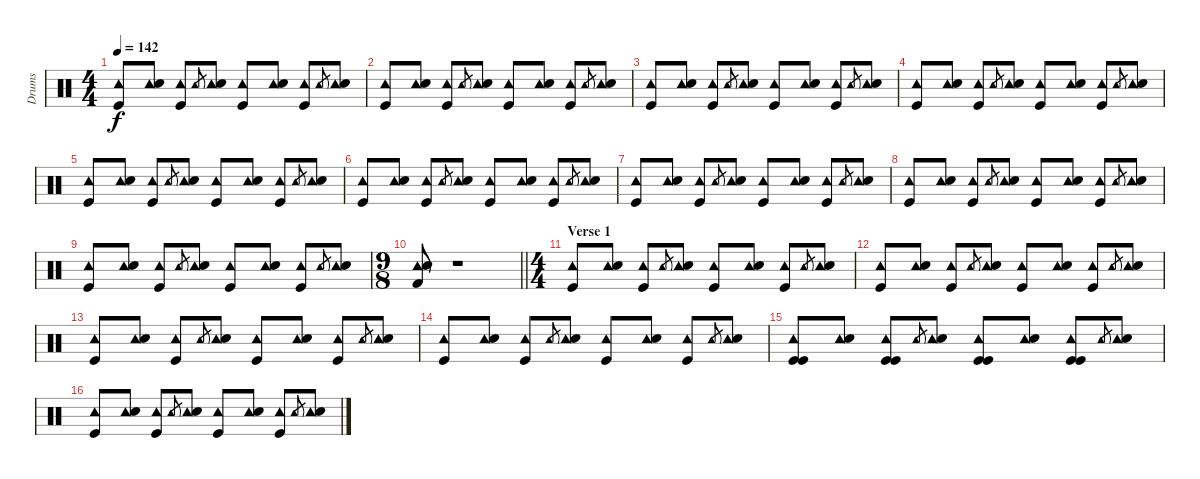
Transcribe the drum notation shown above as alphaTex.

\track ("Drums" "Drums") {instrument percussion}
\staff {score}
\articulation defaults
\ts (4 4)
\tempo 142
\clef neutral
\ks c
("Tambourine (hit)" "Kick (hit)").8{dy f} ("Tambourine (hit)" "Snare (hit) 2").8 ("Tambourine (hit)" "Kick (hit)").8 "Tambourine (hit)".8{gr} ("Tambourine (hit)" "Snare (hit) 2").8 ("Tambourine (hit)" "Kick (hit)").8 ("Tambourine (hit)" "Snare (hit) 2").8 ("Tambourine (hit)" "Kick (hit)").8 "Tambourine (hit)".8{gr} ("Tambourine (hit)" "Snare (hit) 2").8 |
("Tambourine (hit)" "Kick (hit)").8 ("Tambourine (hit)" "Snare (hit) 2").8 ("Tambourine (hit)" "Kick (hit)").8 "Tambourine (hit)".8{gr} ("Tambourine (hit)" "Snare (hit) 2").8 ("Tambourine (hit)" "Kick (hit)").8 ("Tambourine (hit)" "Snare (hit) 2").8 ("Tambourine (hit)" "Kick (hit)").8 "Tambourine (hit)".8{gr} ("Tambourine (hit)" "Snare (hit) 2").8 |
("Tambourine (hit)" "Kick (hit)").8 ("Tambourine (hit)" "Snare (hit) 2").8 ("Tambourine (hit)" "Kick (hit)").8 "Tambourine (hit)".8{gr} ("Tambourine (hit)" "Snare (hit) 2").8 ("Tambourine (hit)" "Kick (hit)").8 ("Tambourine (hit)" "Snare (hit) 2").8 ("Tambourine (hit)" "Kick (hit)").8 "Tambourine (hit)".8{gr} ("Tambourine (hit)" "Snare (hit) 2").8 |
("Tambourine (hit)" "Kick (hit)").8 ("Tambourine (hit)" "Snare (hit) 2").8 ("Tambourine (hit)" "Kick (hit)").8 "Tambourine (hit)".8{gr} ("Tambourine (hit)" "Snare (hit) 2").8 ("Tambourine (hit)" "Kick (hit)").8 ("Tambourine (hit)" "Snare (hit) 2").8 ("Tambourine (hit)" "Kick (hit)").8 "Tambourine (hit)".8{gr} ("Tambourine (hit)" "Snare (hit) 2").8 |
("Tambourine (hit)" "Kick (hit)").8 ("Tambourine (hit)" "Snare (hit) 2").8 ("Tambourine (hit)" "Kick (hit)").8 "Tambourine (hit)".8{gr} ("Tambourine (hit)" "Snare (hit) 2").8 ("Tambourine (hit)" "Kick (hit)").8 ("Tambourine (hit)" "Snare (hit) 2").8 ("Tambourine (hit)" "Kick (hit)").8 "Tambourine (hit)".8{gr} ("Tambourine (hit)" "Snare (hit) 2").8 |
("Tambourine (hit)" "Kick (hit)").8 ("Tambourine (hit)" "Snare (hit) 2").8 ("Tambourine (hit)" "Kick (hit)").8 "Tambourine (hit)".8{gr} ("Tambourine (hit)" "Snare (hit) 2").8 ("Tambourine (hit)" "Kick (hit)").8 ("Tambourine (hit)" "Snare (hit) 2").8 ("Tambourine (hit)" "Kick (hit)").8 "Tambourine (hit)".8{gr} ("Tambourine (hit)" "Snare (hit) 2").8 |
("Tambourine (hit)" "Kick (hit)").8 ("Tambourine (hit)" "Snare (hit) 2").8 ("Tambourine (hit)" "Kick (hit)").8 "Tambourine (hit)".8{gr} ("Tambourine (hit)" "Snare (hit) 2").8 ("Tambourine (hit)" "Kick (hit)").8 ("Tambourine (hit)" "Snare (hit) 2").8 ("Tambourine (hit)" "Kick (hit)").8 "Tambourine (hit)".8{gr} ("Tambourine (hit)" "Snare (hit) 2").8 |
("Tambourine (hit)" "Kick (hit)").8 ("Tambourine (hit)" "Snare (hit) 2").8 ("Tambourine (hit)" "Kick (hit)").8 "Tambourine (hit)".8{gr} ("Tambourine (hit)" "Snare (hit) 2").8 ("Tambourine (hit)" "Kick (hit)").8 ("Tambourine (hit)" "Snare (hit) 2").8 ("Tambourine (hit)" "Kick (hit)").8 "Tambourine (hit)".8{gr} ("Tambourine (hit)" "Snare (hit) 2").8 |
("Tambourine (hit)" "Kick (hit)").8 ("Tambourine (hit)" "Snare (hit) 2").8 ("Tambourine (hit)" "Kick (hit)").8 "Tambourine (hit)".8{gr} ("Tambourine (hit)" "Snare (hit) 2").8 ("Tambourine (hit)" "Kick (hit)").8 ("Tambourine (hit)" "Snare (hit) 2").8 ("Tambourine (hit)" "Kick (hit)").8 "Tambourine (hit)".8{gr} ("Tambourine (hit)" "Snare (hit) 2").8 |
\ts (9 8)
\barLineRight lightlight
("Tambourine (hit)" "Snare (hit) 2" "Kick (hit) 2").8 r.1 |
\ts (4 4)
\section ("" "Verse 1")
("Tambourine (hit)" "Kick (hit)").8 ("Tambourine (hit)" "Snare (hit) 2").8 ("Tambourine (hit)" "Kick (hit)").8 "Tambourine (hit)".8{gr} ("Tambourine (hit)" "Snare (hit) 2").8 ("Tambourine (hit)" "Kick (hit)").8 ("Tambourine (hit)" "Snare (hit) 2").8 ("Tambourine (hit)" "Kick (hit)").8 "Tambourine (hit)".8{gr} ("Tambourine (hit)" "Snare (hit) 2").8 |
("Tambourine (hit)" "Kick (hit)").8 ("Tambourine (hit)" "Snare (hit) 2").8 ("Tambourine (hit)" "Kick (hit)").8 "Tambourine (hit)".8{gr} ("Tambourine (hit)" "Snare (hit) 2").8 ("Tambourine (hit)" "Kick (hit)").8 ("Tambourine (hit)" "Snare (hit) 2").8 ("Tambourine (hit)" "Kick (hit)").8 "Tambourine (hit)".8{gr} ("Tambourine (hit)" "Snare (hit) 2").8 |
("Tambourine (hit)" "Kick (hit)").8 ("Tambourine (hit)" "Snare (hit) 2").8 ("Tambourine (hit)" "Kick (hit)").8 "Tambourine (hit)".8{gr} ("Tambourine (hit)" "Snare (hit) 2").8 ("Tambourine (hit)" "Kick (hit)").8 ("Tambourine (hit)" "Snare (hit) 2").8 ("Tambourine (hit)" "Kick (hit)").8 "Tambourine (hit)".8{gr} ("Tambourine (hit)" "Snare (hit) 2").8 |
("Tambourine (hit)" "Kick (hit)").8 ("Tambourine (hit)" "Snare (hit) 2").8 ("Tambourine (hit)" "Kick (hit)").8 "Tambourine (hit)".8{gr} ("Tambourine (hit)" "Snare (hit) 2").8 ("Tambourine (hit)" "Kick (hit)").8 ("Tambourine (hit)" "Snare (hit) 2").8 ("Tambourine (hit)" "Kick (hit)").8 "Tambourine (hit)".8{gr} ("Tambourine (hit)" "Snare (hit) 2").8 |
("Tambourine (hit)" "Kick (hit)" "Kick (hit)").8 ("Tambourine (hit)" "Snare (hit) 2").8 ("Tambourine (hit)" "Kick (hit)" "Kick (hit)").8 "Tambourine (hit)".8{gr} ("Tambourine (hit)" "Snare (hit) 2").8 ("Tambourine (hit)" "Kick (hit)" "Kick (hit)").8 ("Tambourine (hit)" "Snare (hit) 2").8 ("Tambourine (hit)" "Kick (hit)" "Kick (hit)").8 "Tambourine (hit)".8{gr} ("Tambourine (hit)" "Snare (hit) 2").8 |
("Tambourine (hit)" "Kick (hit)").8 ("Tambourine (hit)" "Snare (hit) 2").8 ("Tambourine (hit)" "Kick (hit)").8 "Tambourine (hit)".8{gr} ("Tambourine (hit)" "Snare (hit) 2").8 ("Tambourine (hit)" "Kick (hit)").8 ("Tambourine (hit)" "Snare (hit) 2").8 ("Tambourine (hit)" "Kick (hit)").8 "Tambourine (hit)".8{gr} ("Tambourine (hit)" "Snare (hit) 2").8
